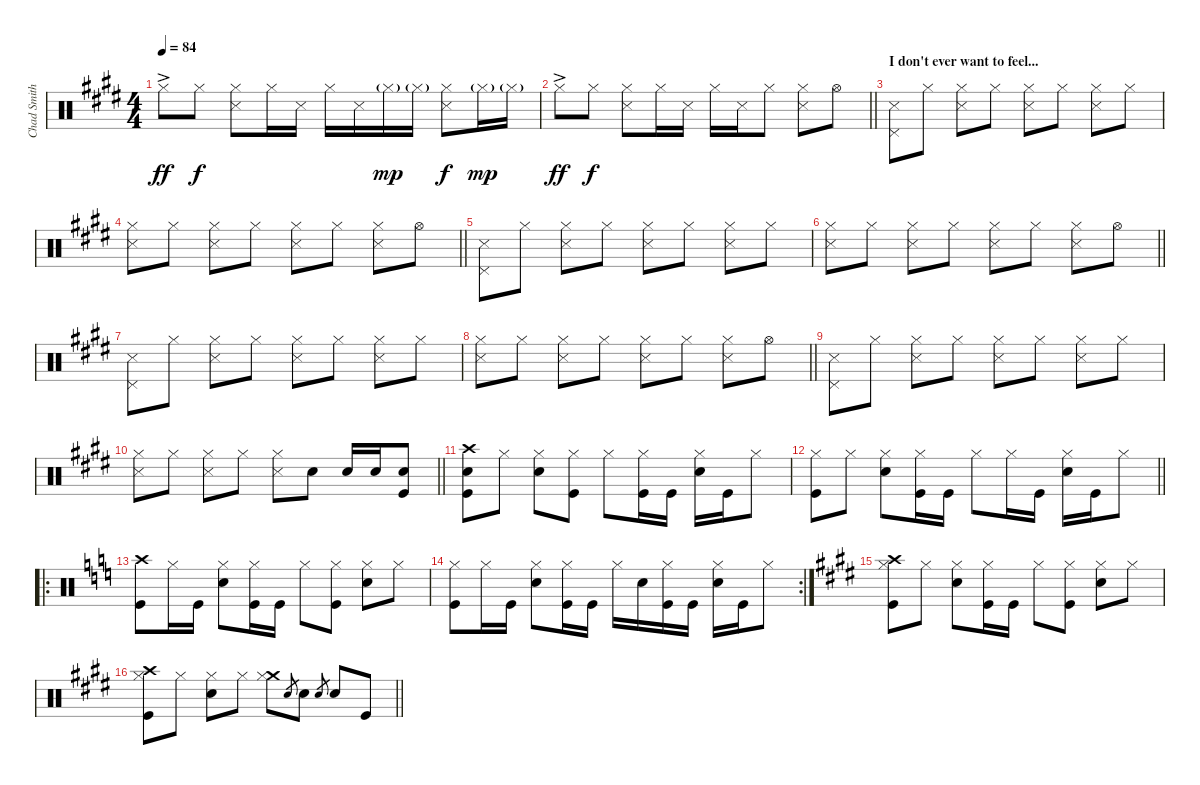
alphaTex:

\track ("Chad Smith" "Chad Smith") {instrument percussion}
\staff {score}
\articulation defaults
\ts (4 4)
\tempo 84
\clef neutral
\ks c#minor "Hi-Hat (closed)"{ac}.8{dy ff} "Hi-Hat (closed)".8{dy f}
("Hi-Hat (closed)" "Snare (side stick) 3").8 "Hi-Hat (closed)".16 "Snare (side stick) 3".16 "Hi-Hat (closed)".16 "Snare (side stick) 3".16 "Hi-Hat (closed)"{g}.16{dy mp} "Hi-Hat (closed)"{g}.16 ("Snare (side stick) 3" "Hi-Hat (closed)").8{dy f} "Hi-Hat (closed)"{g}.16{dy mp} "Hi-Hat (closed)"{g}.16 |
\barLineRight lightlight "Hi-Hat (closed)"{ac}.8{dy ff} "Hi-Hat (closed)".8{dy f}
("Hi-Hat (closed)" "Snare (side stick) 3").8 "Hi-Hat (closed)".16 "Snare (side stick) 3".16 "Hi-Hat (closed)".16 "Snare (side stick) 3".16 "Hi-Hat (closed)".8 ("Snare (side stick) 3" "Hi-Hat (closed)").8 "Hi-Hat (open)".8 |
\section ("" "I don't ever want to feel...")
("Snare (side stick) 3" "Pedal Hi-Hat (hit)").8 "Hi-Hat (closed)".8 ("Snare (side stick) 3" "Hi-Hat (closed)").8 "Hi-Hat (closed)".8 ("Hi-Hat (closed)" "Snare (side stick) 3").8 "Hi-Hat (closed)".8 ("Hi-Hat (closed)" "Snare (side stick) 3").8 "Hi-Hat (closed)".8 |
\barLineRight lightlight
("Snare (side stick) 3" "Hi-Hat (closed)").8 "Hi-Hat (closed)".8 ("Snare (side stick) 3" "Hi-Hat (closed)").8 "Hi-Hat (closed)".8 ("Hi-Hat (closed)" "Snare (side stick) 3").8 "Hi-Hat (closed)".8 ("Hi-Hat (closed)" "Snare (side stick) 3").8 "Hi-Hat (open)".8 |
("Snare (side stick) 3" "Pedal Hi-Hat (hit)").8 "Hi-Hat (closed)".8 ("Snare (side stick) 3" "Hi-Hat (closed)").8 "Hi-Hat (closed)".8 ("Hi-Hat (closed)" "Snare (side stick) 3").8 "Hi-Hat (closed)".8 ("Hi-Hat (closed)" "Snare (side stick) 3").8 "Hi-Hat (closed)".8 |
\barLineRight lightlight
("Snare (side stick) 3" "Hi-Hat (closed)").8 "Hi-Hat (closed)".8 ("Snare (side stick) 3" "Hi-Hat (closed)").8 "Hi-Hat (closed)".8 ("Hi-Hat (closed)" "Snare (side stick) 3").8 "Hi-Hat (closed)".8 ("Hi-Hat (closed)" "Snare (side stick) 3").8 "Hi-Hat (open)".8 |
("Snare (side stick) 3" "Pedal Hi-Hat (hit)").8 "Hi-Hat (closed)".8 ("Snare (side stick) 3" "Hi-Hat (closed)").8 "Hi-Hat (closed)".8 ("Hi-Hat (closed)" "Snare (side stick) 3").8 "Hi-Hat (closed)".8 ("Hi-Hat (closed)" "Snare (side stick) 3").8 "Hi-Hat (closed)".8 |
\barLineRight lightlight
("Snare (side stick) 3" "Hi-Hat (closed)").8 "Hi-Hat (closed)".8 ("Snare (side stick) 3" "Hi-Hat (closed)").8 "Hi-Hat (closed)".8 ("Hi-Hat (closed)" "Snare (side stick) 3").8 "Hi-Hat (closed)".8 ("Hi-Hat (closed)" "Snare (side stick) 3").8 "Hi-Hat (open)".8 |
("Snare (side stick) 3" "Pedal Hi-Hat (hit)").8 "Hi-Hat (closed)".8 ("Snare (side stick) 3" "Hi-Hat (closed)").8 "Hi-Hat (closed)".8 ("Hi-Hat (closed)" "Snare (side stick) 3").8 "Hi-Hat (closed)".8 ("Hi-Hat (closed)" "Snare (side stick) 3").8 "Hi-Hat (closed)".8 |
\barLineRight lightlight
("Snare (side stick) 3" "Hi-Hat (closed)").8 "Hi-Hat (closed)".8 ("Snare (side stick) 3" "Hi-Hat (closed)").8 "Hi-Hat (closed)".8 ("Hi-Hat (closed)" "Snare (side stick) 3").8 "Snare (hit) 2".8 "Snare (hit) 2".16 "Snare (hit) 2".16 ("Snare (hit) 2" "Kick (hit)").8 |
("Crash high (hit)" "Kick (hit)" "Snare (hit) 2").8 "Hi-Hat (closed)".8 ("Hi-Hat (closed)" "Snare (hit) 2").8 ("Hi-Hat (closed)" "Kick (hit)").8 "Hi-Hat (closed)".8 ("Hi-Hat (closed)" "Kick (hit)").16 "Kick (hit)".16 ("Hi-Hat (closed)" "Snare (hit) 2").16 "Kick (hit)".16 "Hi-Hat (closed)".8 |
\barLineRight lightlight
("Hi-Hat (closed)" "Kick (hit)").8 "Hi-Hat (closed)".8 ("Hi-Hat (closed)" "Snare (hit) 2").8 ("Hi-Hat (closed)" "Kick (hit)").16 "Kick (hit)".16 "Hi-Hat (closed)".8 "Hi-Hat (closed)".16 "Kick (hit)".16 ("Hi-Hat (closed)" "Snare (hit) 2").16 "Kick (hit)".16 "Hi-Hat (closed)".8 |
\ro
\ks c
("Crash high (hit)" "Kick (hit)").8 "Hi-Hat (closed)".16 "Kick (hit)".16 ("Hi-Hat (closed)" "Snare (hit) 2").8 ("Hi-Hat (closed)" "Kick (hit)").16 "Kick (hit)".16 "Hi-Hat (closed)".8 ("Hi-Hat (closed)" "Kick (hit)").8 ("Hi-Hat (closed)" "Snare (hit) 2").8 "Hi-Hat (closed)".8 |
\rc 2
("Hi-Hat (closed)" "Kick (hit)").8 "Hi-Hat (closed)".16 "Kick (hit)".16 ("Hi-Hat (closed)" "Snare (hit) 2").8 ("Hi-Hat (closed)" "Kick (hit)").16 "Kick (hit)".16 "Hi-Hat (closed)".16 "Snare (hit) 2".16 ("Hi-Hat (closed)" "Kick (hit)").16 "Kick (hit)".16 ("Hi-Hat (closed)" "Snare (hit) 2").16 "Kick (hit)".16 "Hi-Hat (closed)".8 |
\ks c#minor
("Hi-Hat (closed)" "Kick (hit)" "Crash high (hit)").8 "Hi-Hat (closed)".8 ("Hi-Hat (closed)" "Snare (hit) 2").8 ("Hi-Hat (closed)" "Kick (hit)").16 "Kick (hit)".16 "Hi-Hat (closed)".8 ("Hi-Hat (closed)" "Kick (hit)").8 ("Hi-Hat (closed)" "Snare (hit) 2").8 "Hi-Hat (closed)".8 |
\barLineRight lightlight
("Hi-Hat (closed)" "Kick (hit)" "Crash high (hit)").8 "Hi-Hat (closed)".8 ("Hi-Hat (closed)" "Snare (hit) 2").8 "Hi-Hat (closed)".8 ("Crash medium (hit)" "Hi-Hat (closed)").8 "Snare (hit) 2".8{gr} "Snare (hit) 2".8 "Snare (hit) 2".8{gr} "Snare (hit) 2".8 "Kick (hit)".8
